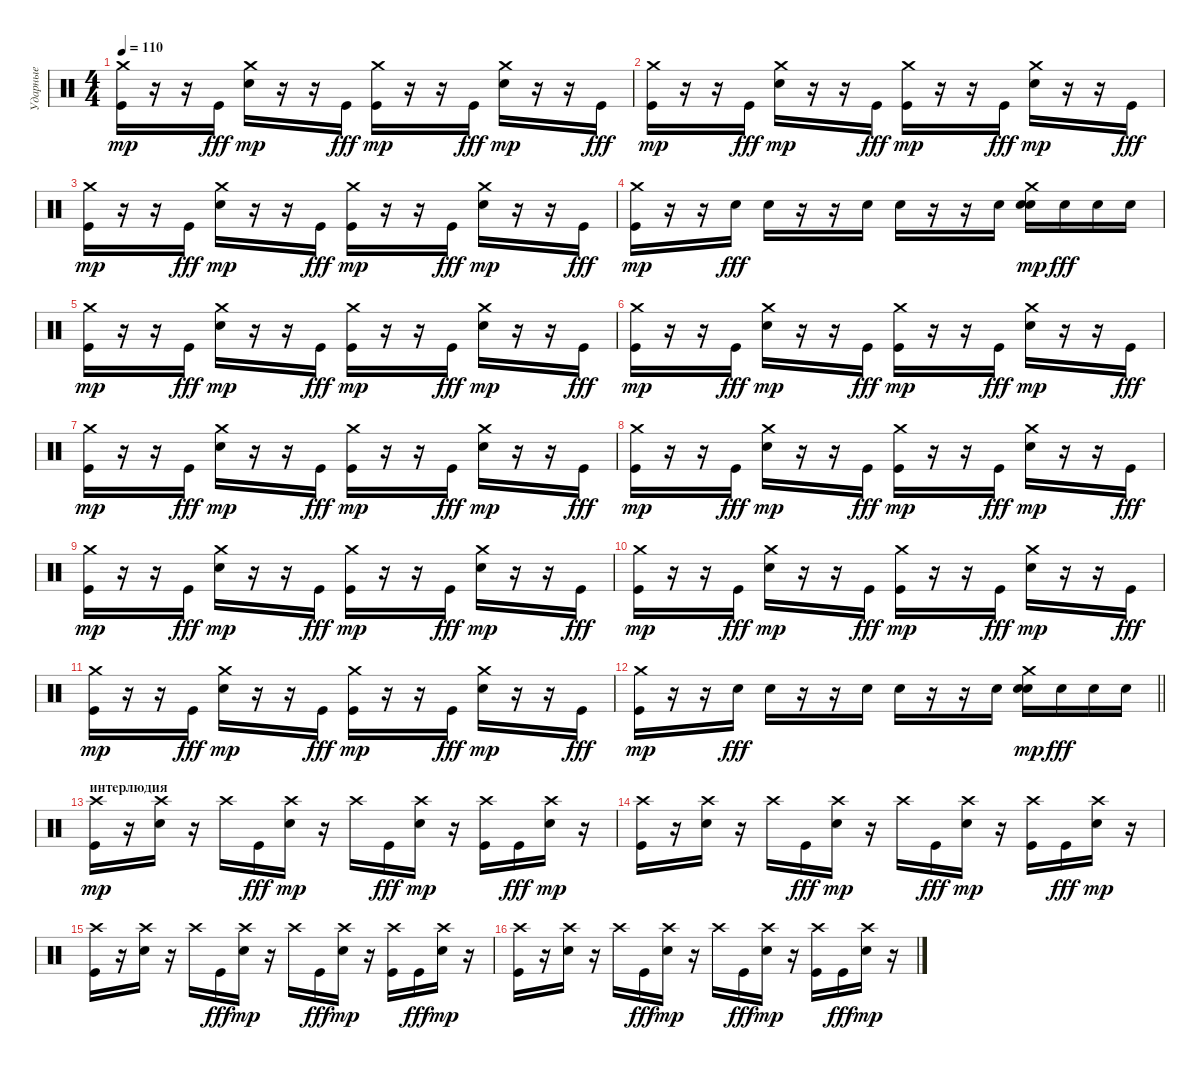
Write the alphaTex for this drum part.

\track ("Ударные" "Ударные") {instrument percussion}
\staff {score}
\articulation defaults
\ts (4 4)
\tempo 110
\clef neutral
\ks c
("Kick (hit)" "Crash medium (hit)").16{dy mp} r.16 r.16 "Kick (hit)".16{dy fff} ("Electric Snare (hit)" "Crash medium (hit)").16{dy mp} r.16 r.16 "Kick (hit)".16{dy fff} ("Kick (hit)" "Crash medium (hit)").16{dy mp} r.16 r.16 "Kick (hit)".16{dy fff} ("Electric Snare (hit)" "Crash medium (hit)").16{dy mp} r.16 r.16 "Kick (hit)".16{dy fff} |
("Kick (hit)" "Crash medium (hit)").16{dy mp} r.16 r.16 "Kick (hit)".16{dy fff} ("Electric Snare (hit)" "Crash medium (hit)").16{dy mp} r.16 r.16 "Kick (hit)".16{dy fff} ("Kick (hit)" "Crash medium (hit)").16{dy mp} r.16 r.16 "Kick (hit)".16{dy fff} ("Electric Snare (hit)" "Crash medium (hit)").16{dy mp} r.16 r.16 "Kick (hit)".16{dy fff} |
("Kick (hit)" "Crash medium (hit)").16{dy mp} r.16 r.16 "Kick (hit)".16{dy fff} ("Electric Snare (hit)" "Crash medium (hit)").16{dy mp} r.16 r.16 "Kick (hit)".16{dy fff} ("Kick (hit)" "Crash medium (hit)").16{dy mp} r.16 r.16 "Kick (hit)".16{dy fff} ("Electric Snare (hit)" "Crash medium (hit)").16{dy mp} r.16 r.16 "Kick (hit)".16{dy fff} |
("Kick (hit)" "Crash medium (hit)").16{dy mp} r.16 r.16 "Electric Snare (hit)".16{dy fff} "Electric Snare (hit)".16 r.16 r.16 "Electric Snare (hit)".16 "Electric Snare (hit)".16 r.16 r.16 "Electric Snare (hit)".16 ("Electric Snare (hit)" "Electric Snare (hit)" "Crash medium (hit)").16{dy mp} "Electric Snare (hit)".16{dy fff} "Electric Snare (hit)".16 "Electric Snare (hit)".16 |
("Kick (hit)" "Crash medium (hit)").16{dy mp} r.16 r.16 "Kick (hit)".16{dy fff} ("Electric Snare (hit)" "Crash medium (hit)").16{dy mp} r.16 r.16 "Kick (hit)".16{dy fff} ("Kick (hit)" "Crash medium (hit)").16{dy mp} r.16 r.16 "Kick (hit)".16{dy fff} ("Electric Snare (hit)" "Crash medium (hit)").16{dy mp} r.16 r.16 "Kick (hit)".16{dy fff} |
("Kick (hit)" "Crash medium (hit)").16{dy mp} r.16 r.16 "Kick (hit)".16{dy fff} ("Electric Snare (hit)" "Crash medium (hit)").16{dy mp} r.16 r.16 "Kick (hit)".16{dy fff} ("Kick (hit)" "Crash medium (hit)").16{dy mp} r.16 r.16 "Kick (hit)".16{dy fff} ("Electric Snare (hit)" "Crash medium (hit)").16{dy mp} r.16 r.16 "Kick (hit)".16{dy fff} |
("Kick (hit)" "Crash medium (hit)").16{dy mp} r.16 r.16 "Kick (hit)".16{dy fff} ("Electric Snare (hit)" "Crash medium (hit)").16{dy mp} r.16 r.16 "Kick (hit)".16{dy fff} ("Kick (hit)" "Crash medium (hit)").16{dy mp} r.16 r.16 "Kick (hit)".16{dy fff} ("Electric Snare (hit)" "Crash medium (hit)").16{dy mp} r.16 r.16 "Kick (hit)".16{dy fff} |
("Kick (hit)" "Crash medium (hit)").16{dy mp} r.16 r.16 "Kick (hit)".16{dy fff} ("Electric Snare (hit)" "Crash medium (hit)").16{dy mp} r.16 r.16 "Kick (hit)".16{dy fff} ("Kick (hit)" "Crash medium (hit)").16{dy mp} r.16 r.16 "Kick (hit)".16{dy fff} ("Electric Snare (hit)" "Crash medium (hit)").16{dy mp} r.16 r.16 "Kick (hit)".16{dy fff} |
("Kick (hit)" "Crash medium (hit)").16{dy mp} r.16 r.16 "Kick (hit)".16{dy fff} ("Electric Snare (hit)" "Crash medium (hit)").16{dy mp} r.16 r.16 "Kick (hit)".16{dy fff} ("Kick (hit)" "Crash medium (hit)").16{dy mp} r.16 r.16 "Kick (hit)".16{dy fff} ("Electric Snare (hit)" "Crash medium (hit)").16{dy mp} r.16 r.16 "Kick (hit)".16{dy fff} |
("Kick (hit)" "Crash medium (hit)").16{dy mp} r.16 r.16 "Kick (hit)".16{dy fff} ("Electric Snare (hit)" "Crash medium (hit)").16{dy mp} r.16 r.16 "Kick (hit)".16{dy fff} ("Kick (hit)" "Crash medium (hit)").16{dy mp} r.16 r.16 "Kick (hit)".16{dy fff} ("Electric Snare (hit)" "Crash medium (hit)").16{dy mp} r.16 r.16 "Kick (hit)".16{dy fff} |
("Kick (hit)" "Crash medium (hit)").16{dy mp} r.16 r.16 "Kick (hit)".16{dy fff} ("Electric Snare (hit)" "Crash medium (hit)").16{dy mp} r.16 r.16 "Kick (hit)".16{dy fff} ("Kick (hit)" "Crash medium (hit)").16{dy mp} r.16 r.16 "Kick (hit)".16{dy fff} ("Electric Snare (hit)" "Crash medium (hit)").16{dy mp} r.16 r.16 "Kick (hit)".16{dy fff} |
\barLineRight lightlight
("Kick (hit)" "Crash medium (hit)").16{dy mp} r.16 r.16 "Electric Snare (hit)".16{dy fff} "Electric Snare (hit)".16 r.16 r.16 "Electric Snare (hit)".16 "Electric Snare (hit)".16 r.16 r.16 "Electric Snare (hit)".16 ("Electric Snare (hit)" "Electric Snare (hit)" "Crash medium (hit)").16{dy mp} "Electric Snare (hit)".16{dy fff} "Electric Snare (hit)".16 "Electric Snare (hit)".16 |
\section ("" "интерлюдия")
("Kick (hit)" "Crash high (hit)").16{dy mp} r.16 ("Electric Snare (hit)" "Crash high (hit)").16 r.16 "Crash high (hit)".16 "Kick (hit)".16{dy fff} ("Electric Snare (hit)" "Crash high (hit)").16{dy mp} r.16 "Crash high (hit)".16 "Kick (hit)".16{dy fff} ("Electric Snare (hit)" "Crash high (hit)").16{dy mp} r.16 ("Kick (hit)" "Crash high (hit)").16 "Kick (hit)".16{dy fff} ("Electric Snare (hit)" "Crash high (hit)").16{dy mp} r.16 |
("Kick (hit)" "Crash high (hit)").16 r.16 ("Electric Snare (hit)" "Crash high (hit)").16 r.16 "Crash high (hit)".16 "Kick (hit)".16{dy fff} ("Electric Snare (hit)" "Crash high (hit)").16{dy mp} r.16 "Crash high (hit)".16 "Kick (hit)".16{dy fff} ("Electric Snare (hit)" "Crash high (hit)").16{dy mp} r.16 ("Kick (hit)" "Crash high (hit)").16 "Kick (hit)".16{dy fff} ("Electric Snare (hit)" "Crash high (hit)").16{dy mp} r.16 |
("Kick (hit)" "Crash high (hit)").16 r.16 ("Electric Snare (hit)" "Crash high (hit)").16 r.16 "Crash high (hit)".16 "Kick (hit)".16{dy fff} ("Electric Snare (hit)" "Crash high (hit)").16{dy mp} r.16 "Crash high (hit)".16 "Kick (hit)".16{dy fff} ("Electric Snare (hit)" "Crash high (hit)").16{dy mp} r.16 ("Kick (hit)" "Crash high (hit)").16 "Kick (hit)".16{dy fff} ("Electric Snare (hit)" "Crash high (hit)").16{dy mp} r.16 |
("Kick (hit)" "Crash high (hit)").16 r.16 ("Electric Snare (hit)" "Crash high (hit)").16 r.16 "Crash high (hit)".16 "Kick (hit)".16{dy fff} ("Electric Snare (hit)" "Crash high (hit)").16{dy mp} r.16 "Crash high (hit)".16 "Kick (hit)".16{dy fff} ("Electric Snare (hit)" "Crash high (hit)").16{dy mp} r.16 ("Kick (hit)" "Crash high (hit)").16 "Kick (hit)".16{dy fff} ("Electric Snare (hit)" "Crash high (hit)").16{dy mp} r.16
